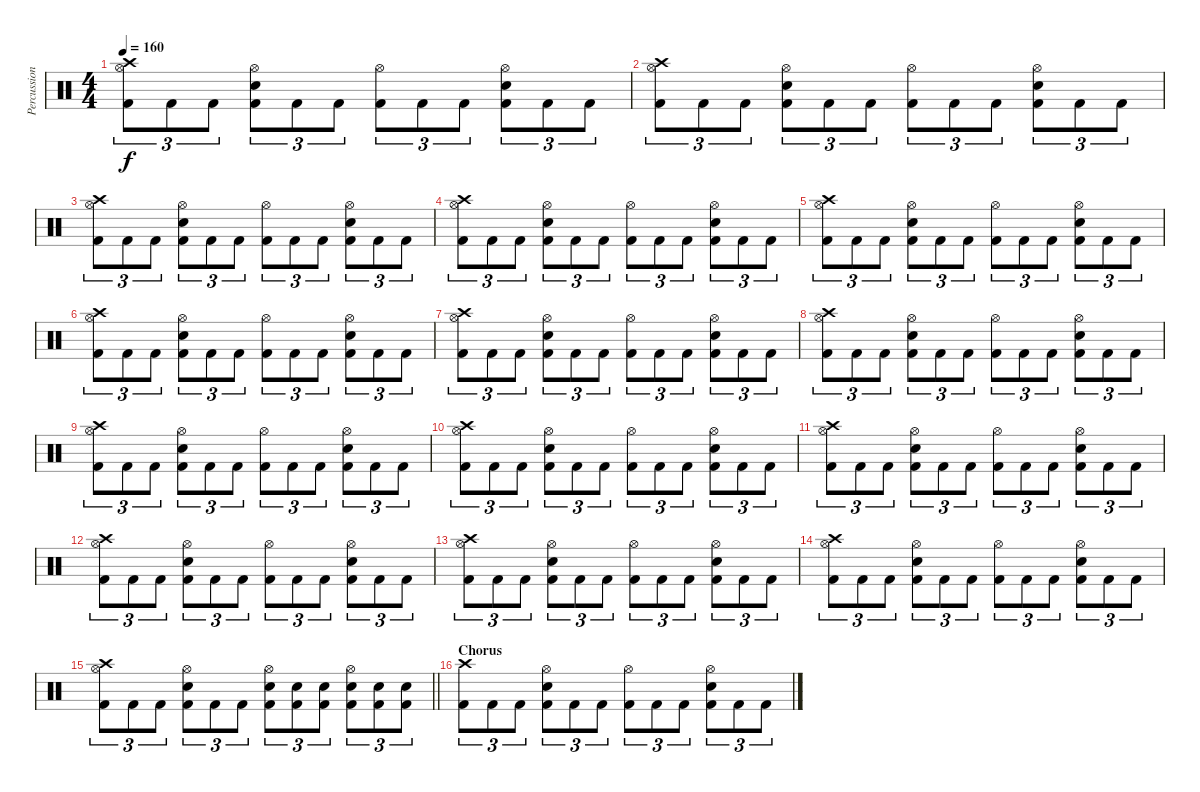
\track ("Percussion" "Percussion") {instrument percussion}
\staff {score}
\articulation defaults
\ts (4 4)
\tempo 160
\clef neutral
\ks c
("Crash high (hit)" "Hi-Hat (open)" "Kick (hit) 2").8{tu (3 2) dy f} "Kick (hit) 2".8{tu (3 2)} "Kick (hit) 2".8{tu (3 2)} ("Hi-Hat (open)" "Snare (hit) 2" "Kick (hit) 2").8{tu (3 2)} "Kick (hit) 2".8{tu (3 2)} "Kick (hit) 2".8{tu (3 2)} ("Hi-Hat (open)" "Kick (hit) 2").8{tu (3 2)} "Kick (hit) 2".8{tu (3 2)} "Kick (hit) 2".8{tu (3 2)} ("Hi-Hat (open)" "Snare (hit) 2" "Kick (hit) 2").8{tu (3 2)} "Kick (hit) 2".8{tu (3 2)} "Kick (hit) 2".8{tu (3 2)} |
("Crash high (hit)" "Hi-Hat (open)" "Kick (hit) 2").8{tu (3 2)} "Kick (hit) 2".8{tu (3 2)} "Kick (hit) 2".8{tu (3 2)} ("Hi-Hat (open)" "Snare (hit) 2" "Kick (hit) 2").8{tu (3 2)} "Kick (hit) 2".8{tu (3 2)} "Kick (hit) 2".8{tu (3 2)} ("Hi-Hat (open)" "Kick (hit) 2").8{tu (3 2)} "Kick (hit) 2".8{tu (3 2)} "Kick (hit) 2".8{tu (3 2)} ("Hi-Hat (open)" "Snare (hit) 2" "Kick (hit) 2").8{tu (3 2)} "Kick (hit) 2".8{tu (3 2)} "Kick (hit) 2".8{tu (3 2)} |
("Crash high (hit)" "Hi-Hat (open)" "Kick (hit) 2").8{tu (3 2)} "Kick (hit) 2".8{tu (3 2)} "Kick (hit) 2".8{tu (3 2)} ("Hi-Hat (open)" "Snare (hit) 2" "Kick (hit) 2").8{tu (3 2)} "Kick (hit) 2".8{tu (3 2)} "Kick (hit) 2".8{tu (3 2)} ("Hi-Hat (open)" "Kick (hit) 2").8{tu (3 2)} "Kick (hit) 2".8{tu (3 2)} "Kick (hit) 2".8{tu (3 2)} ("Hi-Hat (open)" "Snare (hit) 2" "Kick (hit) 2").8{tu (3 2)} "Kick (hit) 2".8{tu (3 2)} "Kick (hit) 2".8{tu (3 2)} |
("Crash high (hit)" "Hi-Hat (open)" "Kick (hit) 2").8{tu (3 2)} "Kick (hit) 2".8{tu (3 2)} "Kick (hit) 2".8{tu (3 2)} ("Hi-Hat (open)" "Snare (hit) 2" "Kick (hit) 2").8{tu (3 2)} "Kick (hit) 2".8{tu (3 2)} "Kick (hit) 2".8{tu (3 2)} ("Hi-Hat (open)" "Kick (hit) 2").8{tu (3 2)} "Kick (hit) 2".8{tu (3 2)} "Kick (hit) 2".8{tu (3 2)} ("Hi-Hat (open)" "Snare (hit) 2" "Kick (hit) 2").8{tu (3 2)} "Kick (hit) 2".8{tu (3 2)} "Kick (hit) 2".8{tu (3 2)} |
("Crash high (hit)" "Hi-Hat (open)" "Kick (hit) 2").8{tu (3 2)} "Kick (hit) 2".8{tu (3 2)} "Kick (hit) 2".8{tu (3 2)} ("Hi-Hat (open)" "Snare (hit) 2" "Kick (hit) 2").8{tu (3 2)} "Kick (hit) 2".8{tu (3 2)} "Kick (hit) 2".8{tu (3 2)} ("Hi-Hat (open)" "Kick (hit) 2").8{tu (3 2)} "Kick (hit) 2".8{tu (3 2)} "Kick (hit) 2".8{tu (3 2)} ("Hi-Hat (open)" "Snare (hit) 2" "Kick (hit) 2").8{tu (3 2)} "Kick (hit) 2".8{tu (3 2)} "Kick (hit) 2".8{tu (3 2)} |
("Crash high (hit)" "Hi-Hat (open)" "Kick (hit) 2").8{tu (3 2)} "Kick (hit) 2".8{tu (3 2)} "Kick (hit) 2".8{tu (3 2)} ("Hi-Hat (open)" "Snare (hit) 2" "Kick (hit) 2").8{tu (3 2)} "Kick (hit) 2".8{tu (3 2)} "Kick (hit) 2".8{tu (3 2)} ("Hi-Hat (open)" "Kick (hit) 2").8{tu (3 2)} "Kick (hit) 2".8{tu (3 2)} "Kick (hit) 2".8{tu (3 2)} ("Hi-Hat (open)" "Snare (hit) 2" "Kick (hit) 2").8{tu (3 2)} "Kick (hit) 2".8{tu (3 2)} "Kick (hit) 2".8{tu (3 2)} |
("Crash high (hit)" "Hi-Hat (open)" "Kick (hit) 2").8{tu (3 2)} "Kick (hit) 2".8{tu (3 2)} "Kick (hit) 2".8{tu (3 2)} ("Hi-Hat (open)" "Snare (hit) 2" "Kick (hit) 2").8{tu (3 2)} "Kick (hit) 2".8{tu (3 2)} "Kick (hit) 2".8{tu (3 2)} ("Hi-Hat (open)" "Kick (hit) 2").8{tu (3 2)} "Kick (hit) 2".8{tu (3 2)} "Kick (hit) 2".8{tu (3 2)} ("Hi-Hat (open)" "Snare (hit) 2" "Kick (hit) 2").8{tu (3 2)} "Kick (hit) 2".8{tu (3 2)} "Kick (hit) 2".8{tu (3 2)} |
("Crash high (hit)" "Hi-Hat (open)" "Kick (hit) 2").8{tu (3 2)} "Kick (hit) 2".8{tu (3 2)} "Kick (hit) 2".8{tu (3 2)} ("Hi-Hat (open)" "Snare (hit) 2" "Kick (hit) 2").8{tu (3 2)} "Kick (hit) 2".8{tu (3 2)} "Kick (hit) 2".8{tu (3 2)} ("Hi-Hat (open)" "Kick (hit) 2").8{tu (3 2)} "Kick (hit) 2".8{tu (3 2)} "Kick (hit) 2".8{tu (3 2)} ("Hi-Hat (open)" "Snare (hit) 2" "Kick (hit) 2").8{tu (3 2)} "Kick (hit) 2".8{tu (3 2)} "Kick (hit) 2".8{tu (3 2)} |
("Crash high (hit)" "Hi-Hat (open)" "Kick (hit) 2").8{tu (3 2)} "Kick (hit) 2".8{tu (3 2)} "Kick (hit) 2".8{tu (3 2)} ("Hi-Hat (open)" "Snare (hit) 2" "Kick (hit) 2").8{tu (3 2)} "Kick (hit) 2".8{tu (3 2)} "Kick (hit) 2".8{tu (3 2)} ("Hi-Hat (open)" "Kick (hit) 2").8{tu (3 2)} "Kick (hit) 2".8{tu (3 2)} "Kick (hit) 2".8{tu (3 2)} ("Hi-Hat (open)" "Snare (hit) 2" "Kick (hit) 2").8{tu (3 2)} "Kick (hit) 2".8{tu (3 2)} "Kick (hit) 2".8{tu (3 2)} |
("Crash high (hit)" "Hi-Hat (open)" "Kick (hit) 2").8{tu (3 2)} "Kick (hit) 2".8{tu (3 2)} "Kick (hit) 2".8{tu (3 2)} ("Hi-Hat (open)" "Snare (hit) 2" "Kick (hit) 2").8{tu (3 2)} "Kick (hit) 2".8{tu (3 2)} "Kick (hit) 2".8{tu (3 2)} ("Hi-Hat (open)" "Kick (hit) 2").8{tu (3 2)} "Kick (hit) 2".8{tu (3 2)} "Kick (hit) 2".8{tu (3 2)} ("Hi-Hat (open)" "Snare (hit) 2" "Kick (hit) 2").8{tu (3 2)} "Kick (hit) 2".8{tu (3 2)} "Kick (hit) 2".8{tu (3 2)} |
("Crash high (hit)" "Hi-Hat (open)" "Kick (hit) 2").8{tu (3 2)} "Kick (hit) 2".8{tu (3 2)} "Kick (hit) 2".8{tu (3 2)} ("Hi-Hat (open)" "Snare (hit) 2" "Kick (hit) 2").8{tu (3 2)} "Kick (hit) 2".8{tu (3 2)} "Kick (hit) 2".8{tu (3 2)} ("Hi-Hat (open)" "Kick (hit) 2").8{tu (3 2)} "Kick (hit) 2".8{tu (3 2)} "Kick (hit) 2".8{tu (3 2)} ("Hi-Hat (open)" "Snare (hit) 2" "Kick (hit) 2").8{tu (3 2)} "Kick (hit) 2".8{tu (3 2)} "Kick (hit) 2".8{tu (3 2)} |
("Crash high (hit)" "Hi-Hat (open)" "Kick (hit) 2").8{tu (3 2)} "Kick (hit) 2".8{tu (3 2)} "Kick (hit) 2".8{tu (3 2)} ("Hi-Hat (open)" "Snare (hit) 2" "Kick (hit) 2").8{tu (3 2)} "Kick (hit) 2".8{tu (3 2)} "Kick (hit) 2".8{tu (3 2)} ("Hi-Hat (open)" "Kick (hit) 2").8{tu (3 2)} "Kick (hit) 2".8{tu (3 2)} "Kick (hit) 2".8{tu (3 2)} ("Hi-Hat (open)" "Snare (hit) 2" "Kick (hit) 2").8{tu (3 2)} "Kick (hit) 2".8{tu (3 2)} "Kick (hit) 2".8{tu (3 2)} |
("Crash high (hit)" "Hi-Hat (open)" "Kick (hit) 2").8{tu (3 2)} "Kick (hit) 2".8{tu (3 2)} "Kick (hit) 2".8{tu (3 2)} ("Hi-Hat (open)" "Snare (hit) 2" "Kick (hit) 2").8{tu (3 2)} "Kick (hit) 2".8{tu (3 2)} "Kick (hit) 2".8{tu (3 2)} ("Hi-Hat (open)" "Kick (hit) 2").8{tu (3 2)} "Kick (hit) 2".8{tu (3 2)} "Kick (hit) 2".8{tu (3 2)} ("Hi-Hat (open)" "Snare (hit) 2" "Kick (hit) 2").8{tu (3 2)} "Kick (hit) 2".8{tu (3 2)} "Kick (hit) 2".8{tu (3 2)} |
("Crash high (hit)" "Hi-Hat (open)" "Kick (hit) 2").8{tu (3 2)} "Kick (hit) 2".8{tu (3 2)} "Kick (hit) 2".8{tu (3 2)} ("Hi-Hat (open)" "Snare (hit) 2" "Kick (hit) 2").8{tu (3 2)} "Kick (hit) 2".8{tu (3 2)} "Kick (hit) 2".8{tu (3 2)} ("Hi-Hat (open)" "Kick (hit) 2").8{tu (3 2)} "Kick (hit) 2".8{tu (3 2)} "Kick (hit) 2".8{tu (3 2)} ("Hi-Hat (open)" "Snare (hit) 2" "Kick (hit) 2").8{tu (3 2)} "Kick (hit) 2".8{tu (3 2)} "Kick (hit) 2".8{tu (3 2)} |
\barLineRight lightlight
("Crash high (hit)" "Hi-Hat (open)" "Kick (hit) 2").8{tu (3 2)} "Kick (hit) 2".8{tu (3 2)} "Kick (hit) 2".8{tu (3 2)} ("Hi-Hat (open)" "Snare (hit) 2" "Kick (hit) 2").8{tu (3 2)} "Kick (hit) 2".8{tu (3 2)} "Kick (hit) 2".8{tu (3 2)} ("Hi-Hat (open)" "Snare (hit) 2" "Kick (hit) 2").8{tu (3 2)} ("Snare (hit) 2" "Kick (hit) 2").8{tu (3 2)} ("Snare (hit) 2" "Kick (hit) 2").8{tu (3 2)} ("Hi-Hat (open)" "Snare (hit) 2" "Kick (hit) 2").8{tu (3 2)} ("Snare (hit) 2" "Kick (hit) 2").8{tu (3 2)} ("Snare (hit) 2" "Kick (hit) 2").8{tu (3 2)} |
\section ("" "Chorus")
("Crash high (hit)" "Kick (hit) 2").8{tu (3 2)} "Kick (hit) 2".8{tu (3 2)} "Kick (hit) 2".8{tu (3 2)} ("Hi-Hat (open)" "Snare (hit) 2" "Kick (hit) 2").8{tu (3 2)} "Kick (hit) 2".8{tu (3 2)} "Kick (hit) 2".8{tu (3 2)} ("Hi-Hat (open)" "Kick (hit) 2").8{tu (3 2)} "Kick (hit) 2".8{tu (3 2)} "Kick (hit) 2".8{tu (3 2)} ("Hi-Hat (open)" "Snare (hit) 2" "Kick (hit) 2").8{tu (3 2)} "Kick (hit) 2".8{tu (3 2)} "Kick (hit) 2".8{tu (3 2)}
